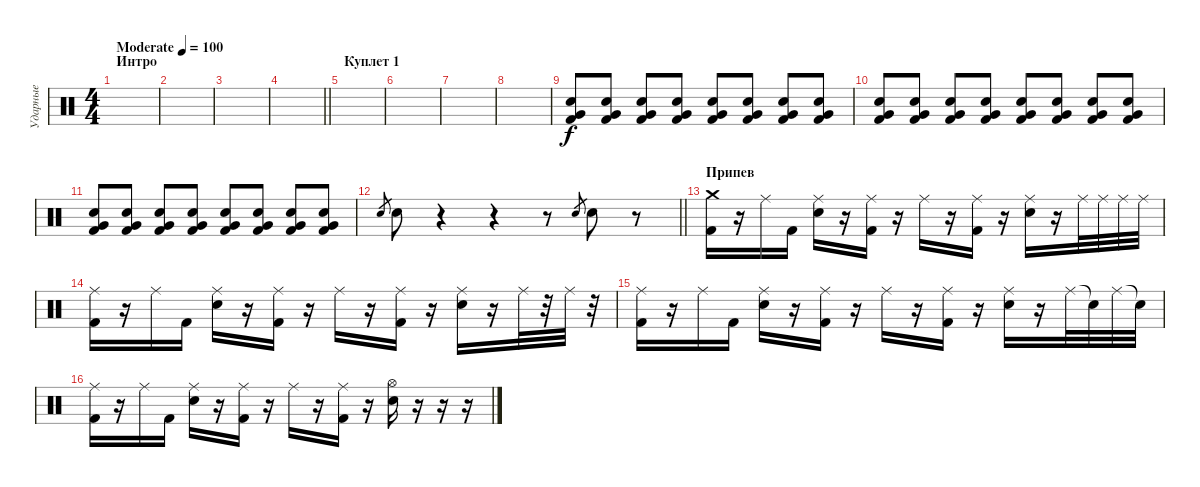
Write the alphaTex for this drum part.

\track ("Ударные" "Ударные") {instrument percussion}
\staff {score}
\articulation defaults
\ts (4 4)
\section ("" "Интро")
\tempo (100 "Moderate")
\clef neutral
\ks c
|
|
|
\barLineRight lightlight
|
\section ("" "Куплет 1")
|
|
|
|
("Very Low Tom (hit)" "Snare (hit) 2" "Kick (hit) 2").8{volume 13} ("Very Low Tom (hit)" "Snare (hit) 2" "Kick (hit) 2").8 ("Very Low Tom (hit)" "Snare (hit) 2" "Kick (hit) 2").8 ("Very Low Tom (hit)" "Snare (hit) 2" "Kick (hit) 2").8 ("Very Low Tom (hit)" "Snare (hit) 2" "Kick (hit) 2").8 ("Very Low Tom (hit)" "Snare (hit) 2" "Kick (hit) 2").8 ("Very Low Tom (hit)" "Snare (hit) 2" "Kick (hit) 2").8 ("Very Low Tom (hit)" "Snare (hit) 2" "Kick (hit) 2").8 |
("Very Low Tom (hit)" "Snare (hit) 2" "Kick (hit) 2").8 ("Very Low Tom (hit)" "Snare (hit) 2" "Kick (hit) 2").8 ("Very Low Tom (hit)" "Snare (hit) 2" "Kick (hit) 2").8 ("Very Low Tom (hit)" "Snare (hit) 2" "Kick (hit) 2").8 ("Very Low Tom (hit)" "Snare (hit) 2" "Kick (hit) 2").8 ("Very Low Tom (hit)" "Snare (hit) 2" "Kick (hit) 2").8 ("Very Low Tom (hit)" "Snare (hit) 2" "Kick (hit) 2").8 ("Very Low Tom (hit)" "Snare (hit) 2" "Kick (hit) 2").8 |
("Very Low Tom (hit)" "Snare (hit) 2" "Kick (hit) 2").8 ("Very Low Tom (hit)" "Snare (hit) 2" "Kick (hit) 2").8 ("Very Low Tom (hit)" "Snare (hit) 2" "Kick (hit) 2").8 ("Very Low Tom (hit)" "Snare (hit) 2" "Kick (hit) 2").8 ("Very Low Tom (hit)" "Snare (hit) 2" "Kick (hit) 2").8 ("Very Low Tom (hit)" "Snare (hit) 2" "Kick (hit) 2").8 ("Very Low Tom (hit)" "Snare (hit) 2" "Kick (hit) 2").8 ("Very Low Tom (hit)" "Snare (hit) 2" "Kick (hit) 2").8 |
\barLineRight lightlight "Snare (hit) 2".8{gr} "Snare (hit) 2".8
r.4 r.4 r.8 "Snare (hit) 2".8{gr} "Snare (hit) 2".8 r.8 |
\section ("" "Припев")
("Crash medium (hit)" "Kick (hit) 2").16 r.16 "Ride (middle)".16 "Kick (hit) 2".16 ("Ride (middle)" "Snare (hit) 2").16 r.16 ("Ride (middle)" "Kick (hit) 2").16 r.16 "Ride (middle)".16 r.16 ("Ride (middle)" "Kick (hit) 2").16 r.16 ("Ride (middle)" "Snare (hit) 2").16 r.16 "Ride (middle)".32 "Ride (middle)".32 "Ride (middle)".32 "Ride (middle)".32 |
("Ride (middle)" "Kick (hit) 2").16 r.16 "Ride (middle)".16 "Kick (hit) 2".16 ("Ride (middle)" "Snare (hit) 2").16 r.16 ("Ride (middle)" "Kick (hit) 2").16 r.16 "Ride (middle)".16 r.16 ("Ride (middle)" "Kick (hit) 2").16 r.16 ("Ride (middle)" "Snare (hit) 2").16 r.16 "Ride (middle)".32 r.32 "Ride (middle)".32 r.32 |
("Ride (middle)" "Kick (hit) 2").16 r.16 "Ride (middle)".16 "Kick (hit) 2".16 ("Ride (middle)" "Snare (hit) 2").16 r.16 ("Ride (middle)" "Kick (hit) 2").16 r.16 "Ride (middle)".16 r.16 ("Ride (middle)" "Kick (hit) 2").16 r.16 ("Ride (middle)" "Snare (hit) 2").16 r.16 "Ride (middle)".32 "Snare (hit)"{t}.32 "Ride (middle)".32 "Snare (hit)"{t}.32 |
("Ride (middle)" "Kick (hit) 2").16 r.16 "Ride (middle)".16 "Kick (hit) 2".16 ("Ride (middle)" "Snare (hit) 2").16 r.16 ("Ride (middle)" "Kick (hit) 2").16 r.16 "Ride (middle)".16 r.16 ("Ride (middle)" "Kick (hit) 2").16 r.16 ("Hi-Hat (open)" "Snare (hit) 2").16 r.16 r.16 r.16
